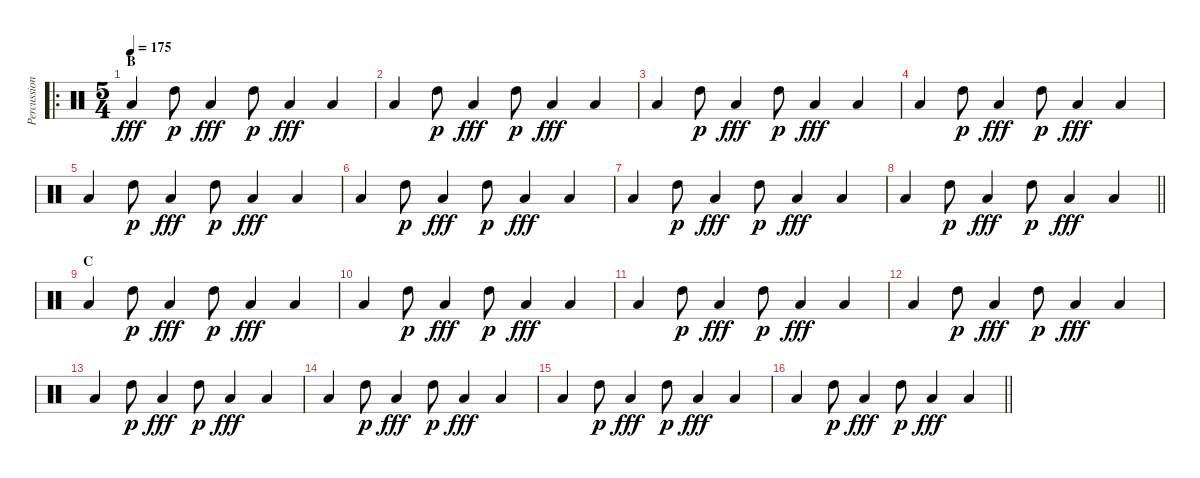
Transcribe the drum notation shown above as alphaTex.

\track ("Percussion" "Percussion") {instrument percussion}
\staff {score}
\articulation defaults
\ro
\ts (5 4)
\section ("" "B")
\tempo 175
\clef neutral
\ks c "Low Tom (hit)".4{dy fff} "High Tom (hit)".8{dy p} "Low Tom (hit)".4{dy fff} "High Tom (hit)".8{dy p} "Low Tom (hit)".4{dy fff} "Low Tom (hit)".4
|
"Low Tom (hit)".4 "High Tom (hit)".8{dy p} "Low Tom (hit)".4{dy fff} "High Tom (hit)".8{dy p} "Low Tom (hit)".4{dy fff} "Low Tom (hit)".4 |
"Low Tom (hit)".4 "High Tom (hit)".8{dy p} "Low Tom (hit)".4{dy fff} "High Tom (hit)".8{dy p} "Low Tom (hit)".4{dy fff} "Low Tom (hit)".4 |
"Low Tom (hit)".4 "High Tom (hit)".8{dy p} "Low Tom (hit)".4{dy fff} "High Tom (hit)".8{dy p} "Low Tom (hit)".4{dy fff} "Low Tom (hit)".4 |
"Low Tom (hit)".4 "High Tom (hit)".8{dy p} "Low Tom (hit)".4{dy fff} "High Tom (hit)".8{dy p} "Low Tom (hit)".4{dy fff} "Low Tom (hit)".4 |
"Low Tom (hit)".4 "High Tom (hit)".8{dy p} "Low Tom (hit)".4{dy fff} "High Tom (hit)".8{dy p} "Low Tom (hit)".4{dy fff} "Low Tom (hit)".4 |
"Low Tom (hit)".4 "High Tom (hit)".8{dy p} "Low Tom (hit)".4{dy fff} "High Tom (hit)".8{dy p} "Low Tom (hit)".4{dy fff} "Low Tom (hit)".4 |
\barLineRight lightlight "Low Tom (hit)".4 "High Tom (hit)".8{dy p} "Low Tom (hit)".4{dy fff} "High Tom (hit)".8{dy p} "Low Tom (hit)".4{dy fff} "Low Tom (hit)".4
|
\section ("" "C")
"Low Tom (hit)".4 "High Tom (hit)".8{dy p} "Low Tom (hit)".4{dy fff} "High Tom (hit)".8{dy p} "Low Tom (hit)".4{dy fff} "Low Tom (hit)".4 |
"Low Tom (hit)".4 "High Tom (hit)".8{dy p} "Low Tom (hit)".4{dy fff} "High Tom (hit)".8{dy p} "Low Tom (hit)".4{dy fff} "Low Tom (hit)".4 |
"Low Tom (hit)".4 "High Tom (hit)".8{dy p} "Low Tom (hit)".4{dy fff} "High Tom (hit)".8{dy p} "Low Tom (hit)".4{dy fff} "Low Tom (hit)".4 |
"Low Tom (hit)".4 "High Tom (hit)".8{dy p} "Low Tom (hit)".4{dy fff} "High Tom (hit)".8{dy p} "Low Tom (hit)".4{dy fff} "Low Tom (hit)".4 |
"Low Tom (hit)".4 "High Tom (hit)".8{dy p} "Low Tom (hit)".4{dy fff} "High Tom (hit)".8{dy p} "Low Tom (hit)".4{dy fff} "Low Tom (hit)".4 |
"Low Tom (hit)".4 "High Tom (hit)".8{dy p} "Low Tom (hit)".4{dy fff} "High Tom (hit)".8{dy p} "Low Tom (hit)".4{dy fff} "Low Tom (hit)".4 |
"Low Tom (hit)".4 "High Tom (hit)".8{dy p} "Low Tom (hit)".4{dy fff} "High Tom (hit)".8{dy p} "Low Tom (hit)".4{dy fff} "Low Tom (hit)".4 |
\barLineRight lightlight "Low Tom (hit)".4 "High Tom (hit)".8{dy p} "Low Tom (hit)".4{dy fff} "High Tom (hit)".8{dy p} "Low Tom (hit)".4{dy fff} "Low Tom (hit)".4
